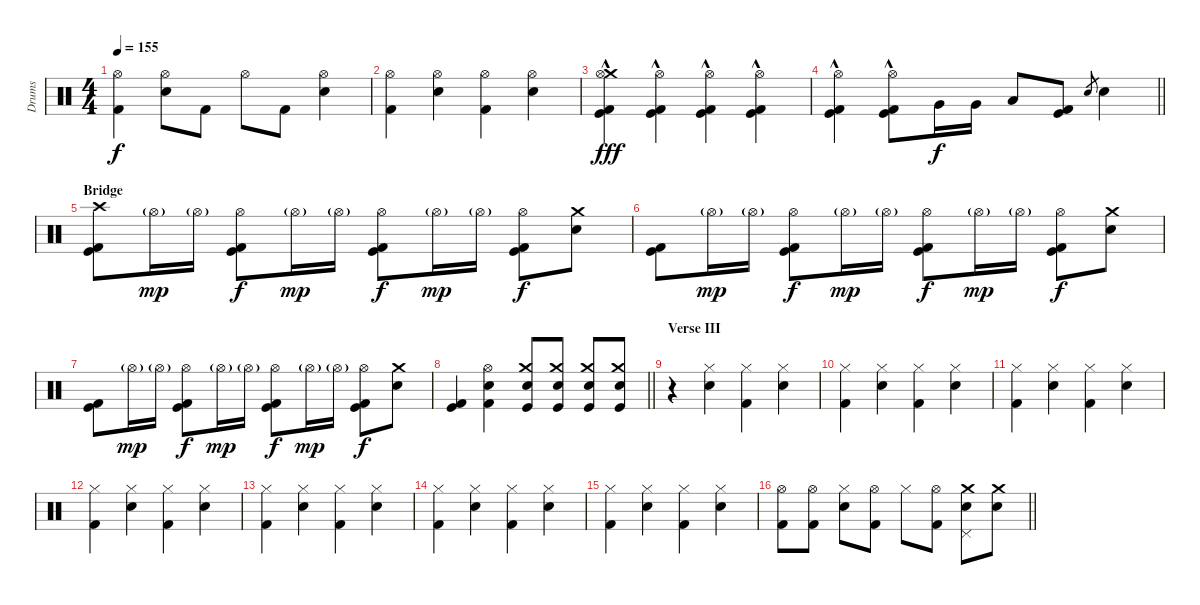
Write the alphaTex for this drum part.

\track ("Drums" "Drums") {instrument percussion}
\staff {score}
\articulation defaults
\ts (4 4)
\tempo 155
\clef neutral
\ks c
("Hi-Hat (open)" "Kick (hit) 2").4{dy f} ("Hi-Hat (open)" "Electric Snare (hit)").8 "Kick (hit) 2".8 "Hi-Hat (open)".8 "Kick (hit) 2".8 ("Hi-Hat (open)" "Electric Snare (hit)").4 |
("Hi-Hat (open)" "Kick (hit) 2").4 ("Hi-Hat (open)" "Electric Snare (hit)").4 ("Hi-Hat (open)" "Kick (hit) 2").4 ("Hi-Hat (open)" "Electric Snare (hit)").4 |
("Crash medium (hit)" "Hi-Hat (open)"{hac} "Kick (hit) 2" "Kick (hit)").4{dy fff} ("Hi-Hat (open)"{hac} "Kick (hit) 2" "Kick (hit)").4 ("Hi-Hat (open)"{hac} "Kick (hit) 2" "Kick (hit)").4 ("Hi-Hat (open)"{hac} "Kick (hit) 2" "Kick (hit)").4 |
\barLineRight lightlight
("Hi-Hat (open)"{hac} "Kick (hit)" "Kick (hit) 2").4 ("Hi-Hat (open)"{hac} "Kick (hit)" "Kick (hit) 2").8 "Very Low Tom (hit)".16{dy f} "Very Low Tom (hit)".16 "Low Floor Tom (hit)".8 ("Kick (hit) 2" "Kick (hit)").8 "Electric Snare (hit)".8{gr} "Electric Snare (hit)".4 |
\section ("" "Bridge")
("Crash high (hit)" "Kick (hit) 2" "Kick (hit)").8 "Hi-Hat (open)"{g}.16{dy mp} "Hi-Hat (open)"{g}.16 ("Hi-Hat (open)" "Kick (hit) 2" "Kick (hit)").8{dy f} "Hi-Hat (open)"{g}.16{dy mp} "Hi-Hat (open)"{g}.16 ("Hi-Hat (open)" "Kick (hit) 2" "Kick (hit)").8{dy f} "Hi-Hat (open)"{g}.16{dy mp} "Hi-Hat (open)"{g}.16 ("Hi-Hat (open)" "Kick (hit) 2" "Kick (hit)").8{dy f} ("Electric Snare (hit)" "Crash medium (hit)").8 |
("Kick (hit) 2" "Kick (hit)").8 "Hi-Hat (open)"{g}.16{dy mp} "Hi-Hat (open)"{g}.16 ("Hi-Hat (open)" "Kick (hit) 2" "Kick (hit)").8{dy f} "Hi-Hat (open)"{g}.16{dy mp} "Hi-Hat (open)"{g}.16 ("Hi-Hat (open)" "Kick (hit) 2" "Kick (hit)").8{dy f} "Hi-Hat (open)"{g}.16{dy mp} "Hi-Hat (open)"{g}.16 ("Hi-Hat (open)" "Kick (hit) 2" "Kick (hit)").8{dy f} ("Electric Snare (hit)" "Crash medium (hit)").8 |
("Kick (hit) 2" "Kick (hit)").8 "Hi-Hat (open)"{g}.16{dy mp} "Hi-Hat (open)"{g}.16 ("Hi-Hat (open)" "Kick (hit) 2" "Kick (hit)").8{dy f} "Hi-Hat (open)"{g}.16{dy mp} "Hi-Hat (open)"{g}.16 ("Hi-Hat (open)" "Kick (hit) 2" "Kick (hit)").8{dy f} "Hi-Hat (open)"{g}.16{dy mp} "Hi-Hat (open)"{g}.16 ("Hi-Hat (open)" "Kick (hit) 2" "Kick (hit)").8{dy f} ("Electric Snare (hit)" "Crash medium (hit)").8 |
\barLineRight lightlight
("Kick (hit) 2" "Kick (hit)").4 ("Electric Snare (hit)" "Kick (hit) 2" "Hi-Hat (open)").4 ("Crash medium (hit)" "Electric Snare (hit)" "Kick (hit)").8 ("Crash medium (hit)" "Electric Snare (hit)" "Kick (hit)").8 ("Crash medium (hit)" "Electric Snare (hit)" "Kick (hit)").8 ("Crash medium (hit)" "Electric Snare (hit)" "Kick (hit)").8 |
\section ("" "Verse III")
r.4 ("Hi-Hat (closed)" "Electric Snare (hit)").4 ("Hi-Hat (closed)" "Kick (hit) 2").4 ("Hi-Hat (closed)" "Electric Snare (hit)").4 |
("Hi-Hat (closed)" "Kick (hit) 2").4 ("Hi-Hat (closed)" "Electric Snare (hit)").4 ("Hi-Hat (closed)" "Kick (hit) 2").4 ("Hi-Hat (closed)" "Electric Snare (hit)").4 |
("Hi-Hat (closed)" "Kick (hit) 2").4 ("Hi-Hat (closed)" "Electric Snare (hit)").4 ("Hi-Hat (closed)" "Kick (hit) 2").4 ("Hi-Hat (closed)" "Electric Snare (hit)").4 |
("Hi-Hat (closed)" "Kick (hit) 2").4 ("Hi-Hat (closed)" "Electric Snare (hit)").4 ("Hi-Hat (closed)" "Kick (hit) 2").4 ("Hi-Hat (closed)" "Electric Snare (hit)").4 |
("Hi-Hat (closed)" "Kick (hit) 2").4 ("Hi-Hat (closed)" "Electric Snare (hit)").4 ("Hi-Hat (closed)" "Kick (hit) 2").4 ("Hi-Hat (closed)" "Electric Snare (hit)").4 |
("Hi-Hat (closed)" "Kick (hit) 2").4 ("Hi-Hat (closed)" "Electric Snare (hit)").4 ("Hi-Hat (closed)" "Kick (hit) 2").4 ("Hi-Hat (closed)" "Electric Snare (hit)").4 |
("Hi-Hat (closed)" "Kick (hit) 2").4 ("Hi-Hat (closed)" "Electric Snare (hit)").4 ("Hi-Hat (closed)" "Kick (hit) 2").4 ("Hi-Hat (closed)" "Electric Snare (hit)").4 |
\barLineRight lightlight
("Hi-Hat (open)" "Kick (hit) 2").8 ("Hi-Hat (open)" "Kick (hit) 2").8 ("Hi-Hat (closed)" "Electric Snare (hit)").8 ("Hi-Hat (open)" "Kick (hit) 2").8 "Hi-Hat (closed)".8 ("Hi-Hat (open)" "Kick (hit) 2").8 ("Pedal Hi-Hat (hit)" "Crash medium (hit)" "Electric Snare (hit)").8 ("Crash medium (hit)" "Electric Snare (hit)").8
